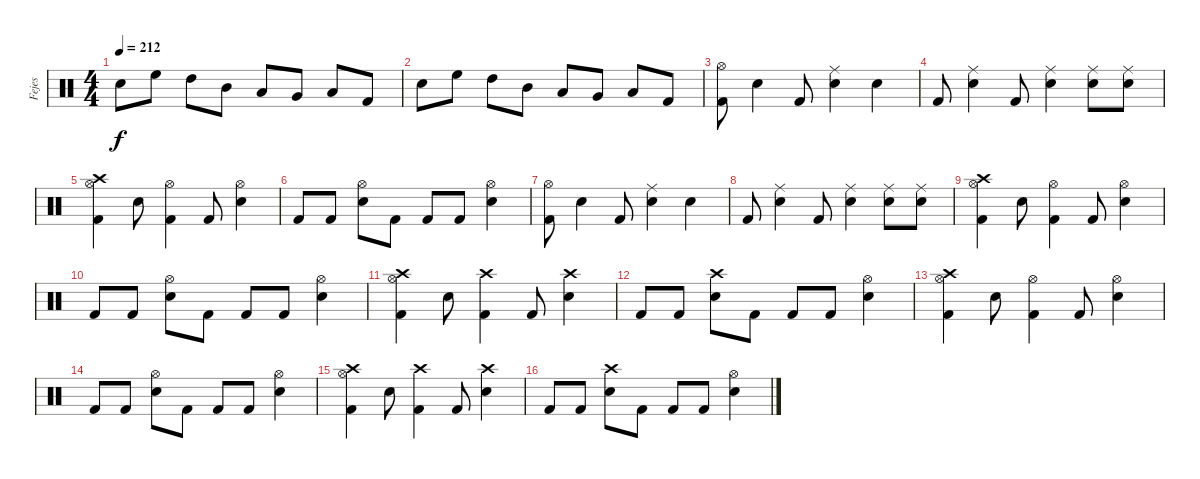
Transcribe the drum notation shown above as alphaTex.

\track ("Fejes" "Fejes") {instrument percussion}
\staff {score}
\articulation defaults
\ts (4 4)
\tempo 212
\clef neutral
\ks c "Snare (hit) 2".8{dy f} "High Floor Tom (hit)".8 "High Tom (hit)".8 "Mid Tom (hit)".8 "Low Tom (hit)".8 "Very Low Tom (hit)".8 "Low Floor Tom (hit)".8 "Kick (hit) 2".8
|
"Snare (hit) 2".8 "High Floor Tom (hit)".8 "High Tom (hit)".8 "Mid Tom (hit)".8 "Low Tom (hit)".8 "Very Low Tom (hit)".8 "Low Floor Tom (hit)".8 "Kick (hit) 2".8 |
("Hi-Hat (open)" "Kick (hit) 2").8 "Snare (hit) 2".4 "Kick (hit) 2".8 ("Ride (middle)" "Snare (hit) 2").4 "Snare (hit) 2".4 |
"Kick (hit) 2".8 ("Ride (middle)" "Snare (hit) 2").4 "Kick (hit) 2".8 ("Ride (middle)" "Snare (hit) 2").4 ("Ride (middle)" "Snare (hit) 2").8 ("Ride (middle)" "Snare (hit) 2").8 |
("Crash high (hit)" "Hi-Hat (open)" "Kick (hit) 2").4 "Snare (hit) 2".8 ("Hi-Hat (open)" "Kick (hit) 2").4 "Kick (hit) 2".8 ("Hi-Hat (open)" "Snare (hit) 2").4 |
"Kick (hit) 2".8 "Kick (hit) 2".8 ("Hi-Hat (open)" "Snare (hit) 2").8 "Kick (hit) 2".8 "Kick (hit) 2".8 "Kick (hit) 2".8 ("Hi-Hat (open)" "Snare (hit) 2").4 |
("Hi-Hat (open)" "Kick (hit) 2").8 "Snare (hit) 2".4 "Kick (hit) 2".8 ("Ride (middle)" "Snare (hit) 2").4 "Snare (hit) 2".4 |
"Kick (hit) 2".8 ("Ride (middle)" "Snare (hit) 2").4 "Kick (hit) 2".8 ("Ride (middle)" "Snare (hit) 2").4 ("Ride (middle)" "Snare (hit) 2").8 ("Ride (middle)" "Snare (hit) 2").8 |
("Crash high (hit)" "Hi-Hat (open)" "Kick (hit) 2").4 "Snare (hit) 2".8 ("Hi-Hat (open)" "Kick (hit) 2").4 "Kick (hit) 2".8 ("Hi-Hat (open)" "Snare (hit) 2").4 |
"Kick (hit) 2".8 "Kick (hit) 2".8 ("Hi-Hat (open)" "Snare (hit) 2").8 "Kick (hit) 2".8 "Kick (hit) 2".8 "Kick (hit) 2".8 ("Hi-Hat (open)" "Snare (hit) 2").4 |
("Crash high (hit)" "Hi-Hat (open)" "Kick (hit) 2").4 "Snare (hit) 2".8 ("Crash high (hit)" "Kick (hit) 2").4 "Kick (hit) 2".8 ("Crash high (hit)" "Snare (hit) 2").4 |
"Kick (hit) 2".8 "Kick (hit) 2".8 ("Crash high (hit)" "Snare (hit) 2").8 "Kick (hit) 2".8 "Kick (hit) 2".8 "Kick (hit) 2".8 ("Hi-Hat (open)" "Snare (hit) 2").4 |
("Crash high (hit)" "Hi-Hat (open)" "Kick (hit) 2").4 "Snare (hit) 2".8 ("Hi-Hat (open)" "Kick (hit) 2").4 "Kick (hit) 2".8 ("Hi-Hat (open)" "Snare (hit) 2").4 |
"Kick (hit) 2".8 "Kick (hit) 2".8 ("Hi-Hat (open)" "Snare (hit) 2").8 "Kick (hit) 2".8 "Kick (hit) 2".8 "Kick (hit) 2".8 ("Hi-Hat (open)" "Snare (hit) 2").4 |
("Crash high (hit)" "Hi-Hat (open)" "Kick (hit) 2").4 "Snare (hit) 2".8 ("Crash high (hit)" "Kick (hit) 2").4 "Kick (hit) 2".8 ("Crash high (hit)" "Snare (hit) 2").4 |
"Kick (hit) 2".8 "Kick (hit) 2".8 ("Crash high (hit)" "Snare (hit) 2").8 "Kick (hit) 2".8 "Kick (hit) 2".8 "Kick (hit) 2".8 ("Hi-Hat (open)" "Snare (hit) 2").4
